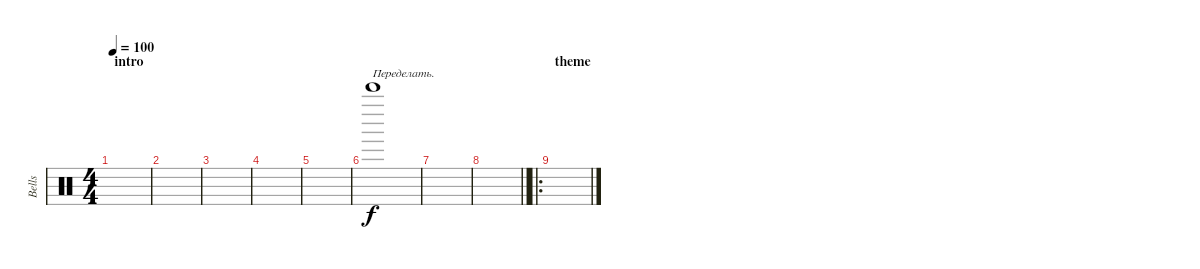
\track ("Bells" "Bells") {instrument percussion}
\staff {score}
\articulation defaults
\ts (4 4)
\section ("" "intro")
\tempo 100
\clef neutral
\ks c
|
|
|
|
|
"Bell Tree (hit)".1{txt "Переделать."} |
|
\barLineRight lightlight
|
\ro
\section ("" "theme")
